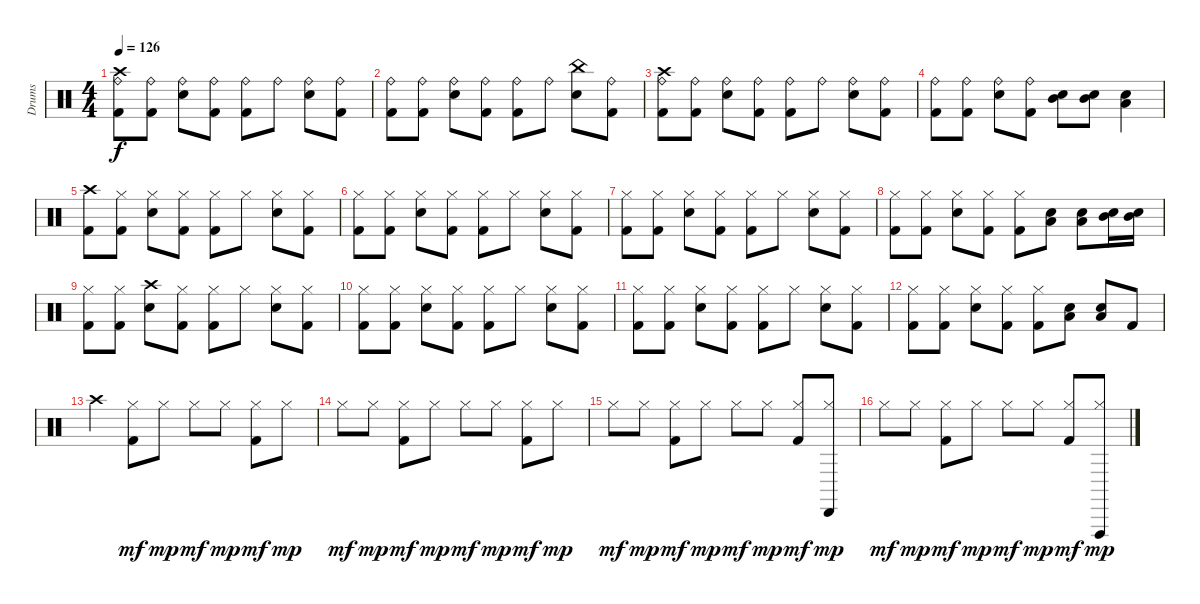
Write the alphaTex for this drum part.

\track ("Drums" "Drums") {instrument percussion}
\staff {score}
\articulation defaults
\ts (4 4)
\tempo 126
\clef neutral
\ks c
("Crash high (hit)" "Ride (bell)" "Kick (hit) 2").8{dy f} ("Ride (bell)" "Kick (hit) 2").8 ("Ride (bell)" "Snare (hit) 2").8 ("Ride (bell)" "Kick (hit) 2").8 ("Ride (bell)" "Kick (hit) 2").8 "Ride (bell)".8 ("Ride (bell)" "Snare (hit) 2").8 ("Ride (bell)" "Kick (hit) 2").8 |
("Ride (bell)" "Kick (hit) 2").8 ("Ride (bell)" "Kick (hit) 2").8 ("Ride (bell)" "Snare (hit) 2").8 ("Ride (bell)" "Kick (hit) 2").8 ("Ride (bell)" "Kick (hit) 2").8 "Ride (bell)".8 ("China (hit)" "Snare (hit) 2").8 ("Ride (bell)" "Kick (hit) 2").8 |
("Crash high (hit)" "Ride (bell)" "Kick (hit) 2").8 ("Ride (bell)" "Kick (hit) 2").8 ("Ride (bell)" "Snare (hit) 2").8 ("Ride (bell)" "Kick (hit) 2").8 ("Ride (bell)" "Kick (hit) 2").8 "Ride (bell)".8 ("Ride (bell)" "Snare (hit) 2").8 ("Ride (bell)" "Kick (hit) 2").8 |
("Ride (bell)" "Kick (hit) 2").8 ("Ride (bell)" "Kick (hit) 2").8 ("Ride (bell)" "Snare (hit) 2").8 ("Ride (bell)" "Kick (hit) 2").8 ("Mid Tom (hit)" "Snare (hit) 2").8 ("Mid Tom (hit)" "Snare (hit) 2").8 ("Low Tom (hit)" "Snare (hit) 2").4 |
("Crash high (hit)" "Kick (hit) 2").8 ("Hi-Hat (closed)" "Kick (hit) 2").8 ("Hi-Hat (closed)" "Snare (hit) 2").8 ("Hi-Hat (closed)" "Kick (hit) 2").8 ("Hi-Hat (closed)" "Kick (hit) 2").8 "Hi-Hat (closed)".8 ("Hi-Hat (closed)" "Snare (hit) 2").8 ("Hi-Hat (closed)" "Kick (hit) 2").8 |
("Hi-Hat (closed)" "Kick (hit) 2").8 ("Hi-Hat (closed)" "Kick (hit) 2").8 ("Hi-Hat (closed)" "Snare (hit) 2").8 ("Hi-Hat (closed)" "Kick (hit) 2").8 ("Hi-Hat (closed)" "Kick (hit) 2").8 "Hi-Hat (closed)".8 ("Hi-Hat (closed)" "Snare (hit) 2").8 ("Hi-Hat (closed)" "Kick (hit) 2").8 |
("Hi-Hat (closed)" "Kick (hit) 2").8 ("Hi-Hat (closed)" "Kick (hit) 2").8 ("Hi-Hat (closed)" "Snare (hit) 2").8 ("Hi-Hat (closed)" "Kick (hit) 2").8 ("Hi-Hat (closed)" "Kick (hit) 2").8 "Hi-Hat (closed)".8 ("Hi-Hat (closed)" "Snare (hit) 2").8 ("Hi-Hat (closed)" "Kick (hit) 2").8 |
("Hi-Hat (closed)" "Kick (hit) 2").8 ("Hi-Hat (closed)" "Kick (hit) 2").8 ("Hi-Hat (closed)" "Snare (hit) 2").8 ("Hi-Hat (closed)" "Kick (hit) 2").8 ("Hi-Hat (closed)" "Kick (hit) 2").8 ("Low Tom (hit)" "Snare (hit) 2").8 ("Low Tom (hit)" "Snare (hit) 2").8 ("Mid Tom (hit)" "Snare (hit) 2").16 ("Mid Tom (hit)" "Snare (hit) 2").16 |
("Hi-Hat (closed)" "Kick (hit) 2").8 ("Hi-Hat (closed)" "Kick (hit) 2").8 ("Crash high (hit)" "Snare (hit) 2").8 ("Hi-Hat (closed)" "Kick (hit) 2").8 ("Hi-Hat (closed)" "Kick (hit) 2").8 "Hi-Hat (closed)".8 ("Hi-Hat (closed)" "Snare (hit) 2").8 ("Hi-Hat (closed)" "Kick (hit) 2").8 |
("Hi-Hat (closed)" "Kick (hit) 2").8 ("Hi-Hat (closed)" "Kick (hit) 2").8 ("Hi-Hat (closed)" "Snare (hit) 2").8 ("Hi-Hat (closed)" "Kick (hit) 2").8 ("Hi-Hat (closed)" "Kick (hit) 2").8 "Hi-Hat (closed)".8 ("Hi-Hat (closed)" "Snare (hit) 2").8 ("Hi-Hat (closed)" "Kick (hit) 2").8 |
("Hi-Hat (closed)" "Kick (hit) 2").8 ("Hi-Hat (closed)" "Kick (hit) 2").8 ("Hi-Hat (closed)" "Snare (hit) 2").8 ("Hi-Hat (closed)" "Kick (hit) 2").8 ("Hi-Hat (closed)" "Kick (hit) 2").8 "Hi-Hat (closed)".8 ("Hi-Hat (closed)" "Snare (hit) 2").8 ("Hi-Hat (closed)" "Kick (hit) 2").8 |
("Hi-Hat (closed)" "Kick (hit) 2").8 ("Hi-Hat (closed)" "Kick (hit) 2").8 ("Hi-Hat (closed)" "Snare (hit) 2").8 ("Hi-Hat (closed)" "Kick (hit) 2").8 ("Hi-Hat (closed)" "Kick (hit) 2").8 ("Low Tom (hit)" "Snare (hit) 2").8 ("Low Tom (hit)" "Snare (hit) 2").8 "Kick (hit) 2".8 |
"Crash high (hit)".4 ("Hi-Hat (closed)" "Kick (hit) 2").8{dy mf} "Hi-Hat (closed)".8{dy mp} "Hi-Hat (closed)".8{dy mf} "Hi-Hat (closed)".8{dy mp} ("Hi-Hat (closed)" "Kick (hit) 2").8{dy mf} "Hi-Hat (closed)".8{dy mp} |
"Hi-Hat (closed)".8{dy mf} "Hi-Hat (closed)".8{dy mp} ("Hi-Hat (closed)" "Kick (hit) 2").8{dy mf} "Hi-Hat (closed)".8{dy mp} "Hi-Hat (closed)".8{dy mf} "Hi-Hat (closed)".8{dy mp} ("Hi-Hat (closed)" "Kick (hit) 2").8{dy mf} "Hi-Hat (closed)".8{dy mp} |
"Hi-Hat (closed)".8{dy mf} "Hi-Hat (closed)".8{dy mp} ("Hi-Hat (closed)" "Kick (hit) 2").8{dy mf} "Hi-Hat (closed)".8{dy mp} "Hi-Hat (closed)".8{dy mf} "Hi-Hat (closed)".8{dy mp} ("Hi-Hat (closed)" "Kick (hit) 2").8{dy mf} ("Cabasa (hit)" "Hi-Hat (closed)").8{dy mp} |
"Hi-Hat (closed)".8{dy mf} "Hi-Hat (closed)".8{dy mp} ("Hi-Hat (closed)" "Kick (hit) 2").8{dy mf} "Hi-Hat (closed)".8{dy mp} "Hi-Hat (closed)".8{dy mf} "Hi-Hat (closed)".8{dy mp} ("Hi-Hat (closed)" "Kick (hit) 2").8{dy mf} ("Vibraslap (hit)" "Hi-Hat (closed)").8{dy mp}
